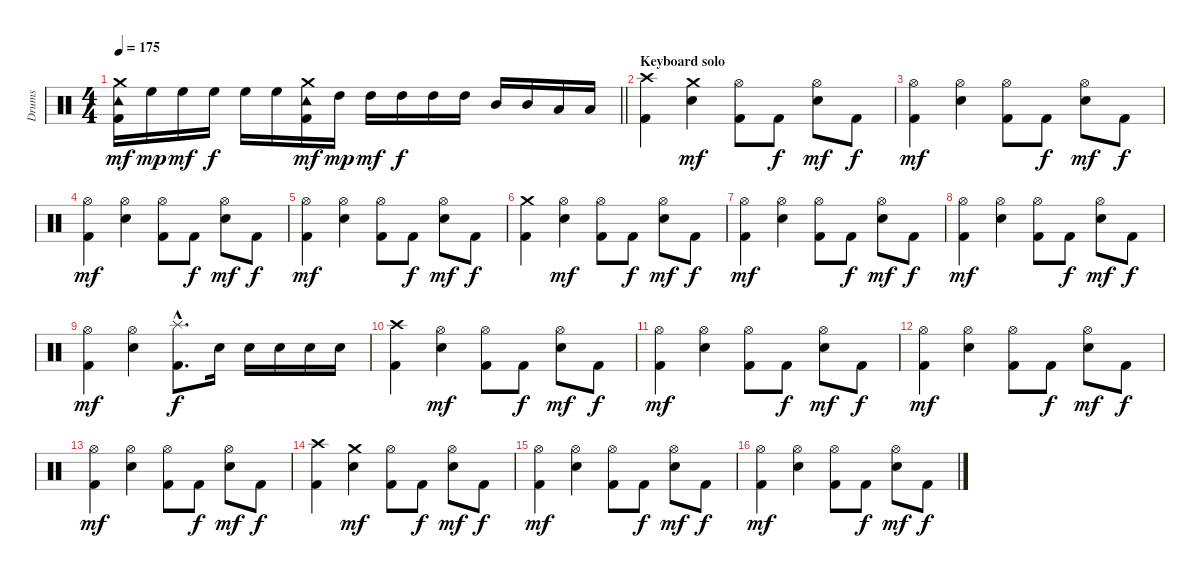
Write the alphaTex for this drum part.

\track ("Drums" "Drums") {instrument percussion}
\staff {score}
\articulation defaults
\ts (4 4)
\tempo 175
\clef neutral
\barLineRight lightlight
\ks c
("Crash medium (hit)" "Tambourine (hit)" "Kick (hit) 2").16{dy mf} "High Floor Tom (hit)".16{dy mp} "High Floor Tom (hit)".16{dy mf} "High Floor Tom (hit)".16{dy f} "High Floor Tom (hit)".16 "High Floor Tom (hit)".16 ("Crash medium (hit)" "Tambourine (hit)" "Kick (hit) 2").16{dy mf} "High Tom (hit)".16{dy mp} "High Tom (hit)".16{dy mf} "High Tom (hit)".16{dy f} "High Tom (hit)".16 "High Tom (hit)".16 "Mid Tom (hit)".16 "Mid Tom (hit)".16 "Low Tom (hit)".16 "Low Tom (hit)".16 |
\section ("" "Keyboard solo")
("Crash high (hit)" "Kick (hit) 2").4 ("Crash medium (hit)" "Electric Snare (hit)").4{dy mf} ("Hi-Hat (open)" "Kick (hit) 2").8 "Kick (hit) 2".8{dy f} ("Hi-Hat (open)" "Electric Snare (hit)").8{dy mf} "Kick (hit) 2".8{dy f} |
("Hi-Hat (open)" "Kick (hit) 2").4{dy mf} ("Hi-Hat (open)" "Electric Snare (hit)").4 ("Hi-Hat (open)" "Kick (hit) 2").8 "Kick (hit) 2".8{dy f} ("Hi-Hat (open)" "Electric Snare (hit)").8{dy mf} "Kick (hit) 2".8{dy f} |
("Hi-Hat (open)" "Kick (hit) 2").4{dy mf} ("Hi-Hat (open)" "Electric Snare (hit)").4 ("Hi-Hat (open)" "Kick (hit) 2").8 "Kick (hit) 2".8{dy f} ("Hi-Hat (open)" "Electric Snare (hit)").8{dy mf} "Kick (hit) 2".8{dy f} |
("Hi-Hat (open)" "Kick (hit) 2").4{dy mf} ("Hi-Hat (open)" "Electric Snare (hit)").4 ("Hi-Hat (open)" "Kick (hit) 2").8 "Kick (hit) 2".8{dy f} ("Hi-Hat (open)" "Electric Snare (hit)").8{dy mf} "Kick (hit) 2".8{dy f} |
("Crash medium (hit)" "Kick (hit) 2").4 ("Hi-Hat (open)" "Electric Snare (hit)").4{dy mf} ("Hi-Hat (open)" "Kick (hit) 2").8 "Kick (hit) 2".8{dy f} ("Hi-Hat (open)" "Electric Snare (hit)").8{dy mf} "Kick (hit) 2".8{dy f} |
("Hi-Hat (open)" "Kick (hit) 2").4{dy mf} ("Hi-Hat (open)" "Electric Snare (hit)").4 ("Hi-Hat (open)" "Kick (hit) 2").8 "Kick (hit) 2".8{dy f} ("Hi-Hat (open)" "Electric Snare (hit)").8{dy mf} "Kick (hit) 2".8{dy f} |
("Hi-Hat (open)" "Kick (hit) 2").4{dy mf} ("Hi-Hat (open)" "Electric Snare (hit)").4 ("Hi-Hat (open)" "Kick (hit) 2").8 "Kick (hit) 2".8{dy f} ("Hi-Hat (open)" "Electric Snare (hit)").8{dy mf} "Kick (hit) 2".8{dy f} |
("Hi-Hat (open)" "Kick (hit) 2").4{dy mf} ("Hi-Hat (open)" "Electric Snare (hit)").4 ("Splash (hit)"{hac} "Kick (hit) 2"{hac}).8{d dy f} "Electric Snare (hit)".16 "Electric Snare (hit)".16 "Electric Snare (hit)".16 "Electric Snare (hit)".16 "Electric Snare (hit)".16 |
("Crash high (hit)" "Kick (hit) 2").4 ("Hi-Hat (open)" "Electric Snare (hit)").4{dy mf} ("Hi-Hat (open)" "Kick (hit) 2").8 "Kick (hit) 2".8{dy f} ("Hi-Hat (open)" "Electric Snare (hit)").8{dy mf} "Kick (hit) 2".8{dy f} |
("Hi-Hat (open)" "Kick (hit) 2").4{dy mf} ("Hi-Hat (open)" "Electric Snare (hit)").4 ("Hi-Hat (open)" "Kick (hit) 2").8 "Kick (hit) 2".8{dy f} ("Hi-Hat (open)" "Electric Snare (hit)").8{dy mf} "Kick (hit) 2".8{dy f} |
("Hi-Hat (open)" "Kick (hit) 2").4{dy mf} ("Hi-Hat (open)" "Electric Snare (hit)").4 ("Hi-Hat (open)" "Kick (hit) 2").8 "Kick (hit) 2".8{dy f} ("Hi-Hat (open)" "Electric Snare (hit)").8{dy mf} "Kick (hit) 2".8{dy f} |
("Hi-Hat (open)" "Kick (hit) 2").4{dy mf} ("Hi-Hat (open)" "Electric Snare (hit)").4 ("Hi-Hat (open)" "Kick (hit) 2").8 "Kick (hit) 2".8{dy f} ("Hi-Hat (open)" "Electric Snare (hit)").8{dy mf} "Kick (hit) 2".8{dy f} |
("Crash high (hit)" "Kick (hit) 2").4 ("Crash medium (hit)" "Electric Snare (hit)").4{dy mf} ("Hi-Hat (open)" "Kick (hit) 2").8 "Kick (hit) 2".8{dy f} ("Hi-Hat (open)" "Electric Snare (hit)").8{dy mf} "Kick (hit) 2".8{dy f} |
("Hi-Hat (open)" "Kick (hit) 2").4{dy mf} ("Hi-Hat (open)" "Electric Snare (hit)").4 ("Hi-Hat (open)" "Kick (hit) 2").8 "Kick (hit) 2".8{dy f} ("Hi-Hat (open)" "Electric Snare (hit)").8{dy mf} "Kick (hit) 2".8{dy f} |
("Hi-Hat (open)" "Kick (hit) 2").4{dy mf} ("Hi-Hat (open)" "Electric Snare (hit)").4 ("Hi-Hat (open)" "Kick (hit) 2").8 "Kick (hit) 2".8{dy f} ("Hi-Hat (open)" "Electric Snare (hit)").8{dy mf} "Kick (hit) 2".8{dy f}
